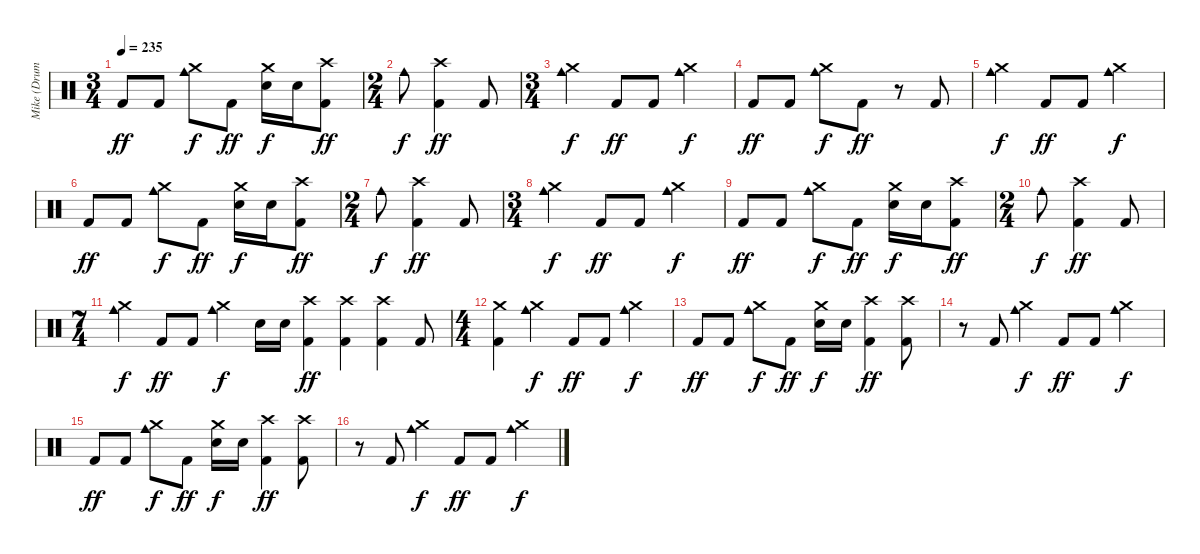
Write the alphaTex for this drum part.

\track ("Mike (Drums)" "Mike (Drum") {instrument percussion}
\staff {score}
\articulation defaults
\ts (3 4)
\tempo 235
\clef neutral
\ks c "Kick (hit) 2".8{dy ff} "Kick (hit) 2".8
("Crash medium (hit)" "Cowbell medium (hit)").8{dy f} "Kick (hit) 2".8{dy ff} ("Crash medium (hit)" "Electric Snare (hit)").16{dy f} "Electric Snare (hit)".16 ("Crash high (hit)" "Kick (hit) 2").8{dy ff} |
\ts (2 4)
"Cowbell medium (hit)".8{dy f} ("Crash high (hit)" "Kick (hit) 2").4{dy ff} "Kick (hit) 2".8 |
\ts (3 4)
("Crash medium (hit)" "Cowbell medium (hit)").4{dy f} "Kick (hit) 2".8{dy ff} "Kick (hit) 2".8 ("Crash medium (hit)" "Cowbell medium (hit)").4{dy f} |
"Kick (hit) 2".8{dy ff} "Kick (hit) 2".8 ("Crash medium (hit)" "Cowbell medium (hit)").8{dy f} "Kick (hit) 2".8{dy ff} r.8 "Kick (hit) 2".8 |
("Crash medium (hit)" "Cowbell medium (hit)").4{dy f} "Kick (hit) 2".8{dy ff} "Kick (hit) 2".8 ("Crash medium (hit)" "Cowbell medium (hit)").4{dy f} |
"Kick (hit) 2".8{dy ff} "Kick (hit) 2".8 ("Crash medium (hit)" "Cowbell medium (hit)").8{dy f} "Kick (hit) 2".8{dy ff} ("Crash medium (hit)" "Electric Snare (hit)").16{dy f} "Electric Snare (hit)".16 ("Crash high (hit)" "Kick (hit) 2").8{dy ff} |
\ts (2 4)
"Cowbell medium (hit)".8{dy f} ("Crash high (hit)" "Kick (hit) 2").4{dy ff} "Kick (hit) 2".8 |
\ts (3 4)
("Crash medium (hit)" "Cowbell medium (hit)").4{dy f} "Kick (hit) 2".8{dy ff} "Kick (hit) 2".8 ("Crash medium (hit)" "Cowbell medium (hit)").4{dy f} |
"Kick (hit) 2".8{dy ff} "Kick (hit) 2".8 ("Crash medium (hit)" "Cowbell medium (hit)").8{dy f} "Kick (hit) 2".8{dy ff} ("Crash medium (hit)" "Electric Snare (hit)").16{dy f} "Electric Snare (hit)".16 ("Crash high (hit)" "Kick (hit) 2").8{dy ff} |
\ts (2 4)
"Cowbell medium (hit)".8{dy f} ("Crash high (hit)" "Kick (hit) 2").4{dy ff} "Kick (hit) 2".8 |
\ts (7 4)
("Crash medium (hit)" "Cowbell medium (hit)").4{dy f} "Kick (hit) 2".8{dy ff} "Kick (hit) 2".8 ("Crash medium (hit)" "Cowbell medium (hit)").4{dy f} "Electric Snare (hit)".16 "Electric Snare (hit)".16 ("Crash high (hit)" "Kick (hit) 2").4{dy ff} ("Crash high (hit)" "Kick (hit) 2").4 ("Crash high (hit)" "Kick (hit) 2").4 "Kick (hit) 2".8 |
\ts (4 4)
("Crash medium (hit)" "Kick (hit) 2").4 ("Crash medium (hit)" "Cowbell medium (hit)").4{dy f} "Kick (hit) 2".8{dy ff} "Kick (hit) 2".8 ("Crash medium (hit)" "Cowbell medium (hit)").4{dy f} |
"Kick (hit) 2".8{dy ff} "Kick (hit) 2".8 ("Crash medium (hit)" "Cowbell medium (hit)").8{dy f} "Kick (hit) 2".8{dy ff} ("Crash medium (hit)" "Electric Snare (hit)").16{dy f} "Electric Snare (hit)".16 ("Crash high (hit)" "Kick (hit) 2").4{dy ff} ("Crash high (hit)" "Kick (hit) 2").8 |
r.8 "Kick (hit) 2".8 ("Crash medium (hit)" "Cowbell medium (hit)").4{dy f} "Kick (hit) 2".8{dy ff} "Kick (hit) 2".8 ("Crash medium (hit)" "Cowbell medium (hit)").4{dy f} |
"Kick (hit) 2".8{dy ff} "Kick (hit) 2".8 ("Crash medium (hit)" "Cowbell medium (hit)").8{dy f} "Kick (hit) 2".8{dy ff} ("Crash medium (hit)" "Electric Snare (hit)").16{dy f} "Electric Snare (hit)".16 ("Crash high (hit)" "Kick (hit) 2").4{dy ff} ("Crash high (hit)" "Kick (hit) 2").8 |
r.8 "Kick (hit) 2".8 ("Crash medium (hit)" "Cowbell medium (hit)").4{dy f} "Kick (hit) 2".8{dy ff} "Kick (hit) 2".8 ("Crash medium (hit)" "Cowbell medium (hit)").4{dy f}
